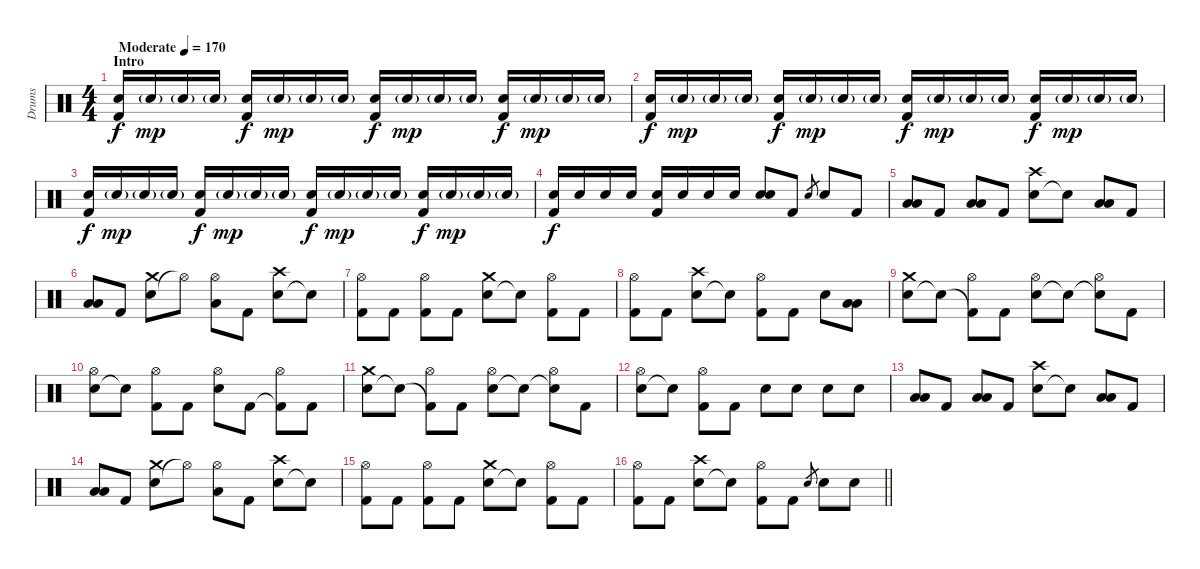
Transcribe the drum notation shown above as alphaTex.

\track ("Drums" "Drums") {instrument percussion}
\staff {score}
\articulation defaults
\ts (4 4)
\section ("" "Intro")
\tempo (170 "Moderate")
\clef neutral
\ks c
("Electric Snare (hit)" "Kick (hit) 2").16{dy f} "Electric Snare (hit)"{g}.16{dy mp} "Electric Snare (hit)"{g}.16 "Electric Snare (hit)"{g}.16 ("Electric Snare (hit)" "Kick (hit) 2").16{dy f} "Electric Snare (hit)"{g}.16{dy mp} "Electric Snare (hit)"{g}.16 "Electric Snare (hit)"{g}.16 ("Electric Snare (hit)" "Kick (hit) 2").16{dy f} "Electric Snare (hit)"{g}.16{dy mp} "Electric Snare (hit)"{g}.16 "Electric Snare (hit)"{g}.16 ("Electric Snare (hit)" "Kick (hit) 2").16{dy f} "Electric Snare (hit)"{g}.16{dy mp} "Electric Snare (hit)"{g}.16 "Electric Snare (hit)"{g}.16 |
("Electric Snare (hit)" "Kick (hit) 2").16{dy f} "Electric Snare (hit)"{g}.16{dy mp} "Electric Snare (hit)"{g}.16 "Electric Snare (hit)"{g}.16 ("Electric Snare (hit)" "Kick (hit) 2").16{dy f} "Electric Snare (hit)"{g}.16{dy mp} "Electric Snare (hit)"{g}.16 "Electric Snare (hit)"{g}.16 ("Electric Snare (hit)" "Kick (hit) 2").16{dy f} "Electric Snare (hit)"{g}.16{dy mp} "Electric Snare (hit)"{g}.16 "Electric Snare (hit)"{g}.16 ("Electric Snare (hit)" "Kick (hit) 2").16{dy f} "Electric Snare (hit)"{g}.16{dy mp} "Electric Snare (hit)"{g}.16 "Electric Snare (hit)"{g}.16 |
("Electric Snare (hit)" "Kick (hit) 2").16{dy f} "Electric Snare (hit)"{g}.16{dy mp} "Electric Snare (hit)"{g}.16 "Electric Snare (hit)"{g}.16 ("Electric Snare (hit)" "Kick (hit) 2").16{dy f} "Electric Snare (hit)"{g}.16{dy mp} "Electric Snare (hit)"{g}.16 "Electric Snare (hit)"{g}.16 ("Electric Snare (hit)" "Kick (hit) 2").16{dy f} "Electric Snare (hit)"{g}.16{dy mp} "Electric Snare (hit)"{g}.16 "Electric Snare (hit)"{g}.16 ("Electric Snare (hit)" "Kick (hit) 2").16{dy f} "Electric Snare (hit)"{g}.16{dy mp} "Electric Snare (hit)"{g}.16 "Electric Snare (hit)"{g}.16 |
("Electric Snare (hit)" "Kick (hit) 2").16{dy f} "Electric Snare (hit)".16 "Electric Snare (hit)".16 "Electric Snare (hit)".16 ("Electric Snare (hit)" "Kick (hit) 2").16 "Electric Snare (hit)".16 "Electric Snare (hit)".16 "Electric Snare (hit)".16 ("Electric Snare (hit)" "Electric Snare (hit)").8 "Kick (hit) 2".8 "Electric Snare (hit)".8{gr} "Electric Snare (hit)".8 "Kick (hit) 2".8 |
("Low Tom (hit)" "Low Floor Tom (hit)").8 "Kick (hit) 2".8 ("Low Tom (hit)" "Low Floor Tom (hit)").8 "Kick (hit) 2".8 ("Electric Snare (hit)" "Crash high (hit)").8 "Snare (hit)"{t}.8 ("Low Tom (hit)" "Low Floor Tom (hit)").8 "Kick (hit) 2".8 |
("Low Tom (hit)" "Low Floor Tom (hit)").8 "Kick (hit) 2".8 ("Electric Snare (hit)" "Crash medium (hit)").8 "Hi-Hat (open)"{t}.8 ("Hi-Hat (open)" "Low Floor Tom (hit)").8 "Kick (hit) 2".8 ("Electric Snare (hit)" "Crash high (hit)").8 "Snare (hit)"{t}.8 |
("Kick (hit) 2" "Hi-Hat (open)").8 "Kick (hit) 2".8 ("Kick (hit) 2" "Hi-Hat (open)").8 "Kick (hit) 2".8 ("Electric Snare (hit)" "Crash medium (hit)").8 "Snare (hit)"{t}.8 ("Kick (hit) 2" "Hi-Hat (open)").8 "Kick (hit) 2".8 |
("Kick (hit) 2" "Hi-Hat (open)").8 "Kick (hit) 2".8 ("Electric Snare (hit)" "Crash high (hit)").8 "Snare (hit)"{t}.8 ("Kick (hit) 2" "Hi-Hat (open)").8 "Kick (hit) 2".8 "Electric Snare (hit)".8 ("Low Tom (hit)" "Low Floor Tom (hit)").8 |
("Electric Snare (hit)" "Crash medium (hit)").8 "Snare (hit)"{t}.8 ("Kick (hit) 2"{t} "Hi-Hat (open)").8 "Kick (hit) 2".8 ("Electric Snare (hit)" "Hi-Hat (open)").8 "Snare (hit)"{t}.8 ("Snare (hit)"{t} "Hi-Hat (open)").8 "Kick (hit) 2".8 |
("Electric Snare (hit)" "Hi-Hat (open)").8 "Snare (hit)"{t}.8 ("Kick (hit) 2" "Hi-Hat (open)").8 "Kick (hit) 2".8 ("Electric Snare (hit)" "Hi-Hat (open)").8 "Kick (hit) 2".8 ("Kick (hit) 2"{t} "Hi-Hat (open)").8 "Kick (hit) 2".8 |
("Electric Snare (hit)" "Crash medium (hit)").8 "Snare (hit)"{t}.8 ("Kick (hit) 2"{t} "Hi-Hat (open)").8 "Kick (hit) 2".8 ("Electric Snare (hit)" "Hi-Hat (open)").8 "Snare (hit)"{t}.8 ("Snare (hit)"{t} "Hi-Hat (open)").8 "Kick (hit) 2".8 |
("Electric Snare (hit)" "Hi-Hat (open)").8 "Snare (hit)"{t}.8 ("Kick (hit) 2" "Hi-Hat (open)").8 "Kick (hit) 2".8 "Electric Snare (hit)".8 "Electric Snare (hit)".8 "Electric Snare (hit)".8 "Electric Snare (hit)".8 |
("Low Tom (hit)" "Low Floor Tom (hit)").8 "Kick (hit) 2".8 ("Low Tom (hit)" "Low Floor Tom (hit)").8 "Kick (hit) 2".8 ("Electric Snare (hit)" "Crash high (hit)").8 "Snare (hit)"{t}.8 ("Low Tom (hit)" "Low Floor Tom (hit)").8 "Kick (hit) 2".8 |
("Low Tom (hit)" "Low Floor Tom (hit)").8 "Kick (hit) 2".8 ("Electric Snare (hit)" "Crash medium (hit)").8 "Hi-Hat (open)"{t}.8 ("Hi-Hat (open)" "Low Floor Tom (hit)").8 "Kick (hit) 2".8 ("Electric Snare (hit)" "Crash high (hit)").8 "Snare (hit)"{t}.8 |
("Kick (hit) 2" "Hi-Hat (open)").8 "Kick (hit) 2".8 ("Kick (hit) 2" "Hi-Hat (open)").8 "Kick (hit) 2".8 ("Electric Snare (hit)" "Crash medium (hit)").8 "Snare (hit)"{t}.8 ("Kick (hit) 2" "Hi-Hat (open)").8 "Kick (hit) 2".8 |
\barLineRight lightlight
("Kick (hit) 2" "Hi-Hat (open)").8 "Kick (hit) 2".8 ("Electric Snare (hit)" "Crash high (hit)").8 "Snare (hit)"{t}.8 ("Kick (hit) 2" "Hi-Hat (open)").8 "Kick (hit) 2".8 "Electric Snare (hit)".8{gr} "Electric Snare (hit)".8 "Electric Snare (hit)".8
